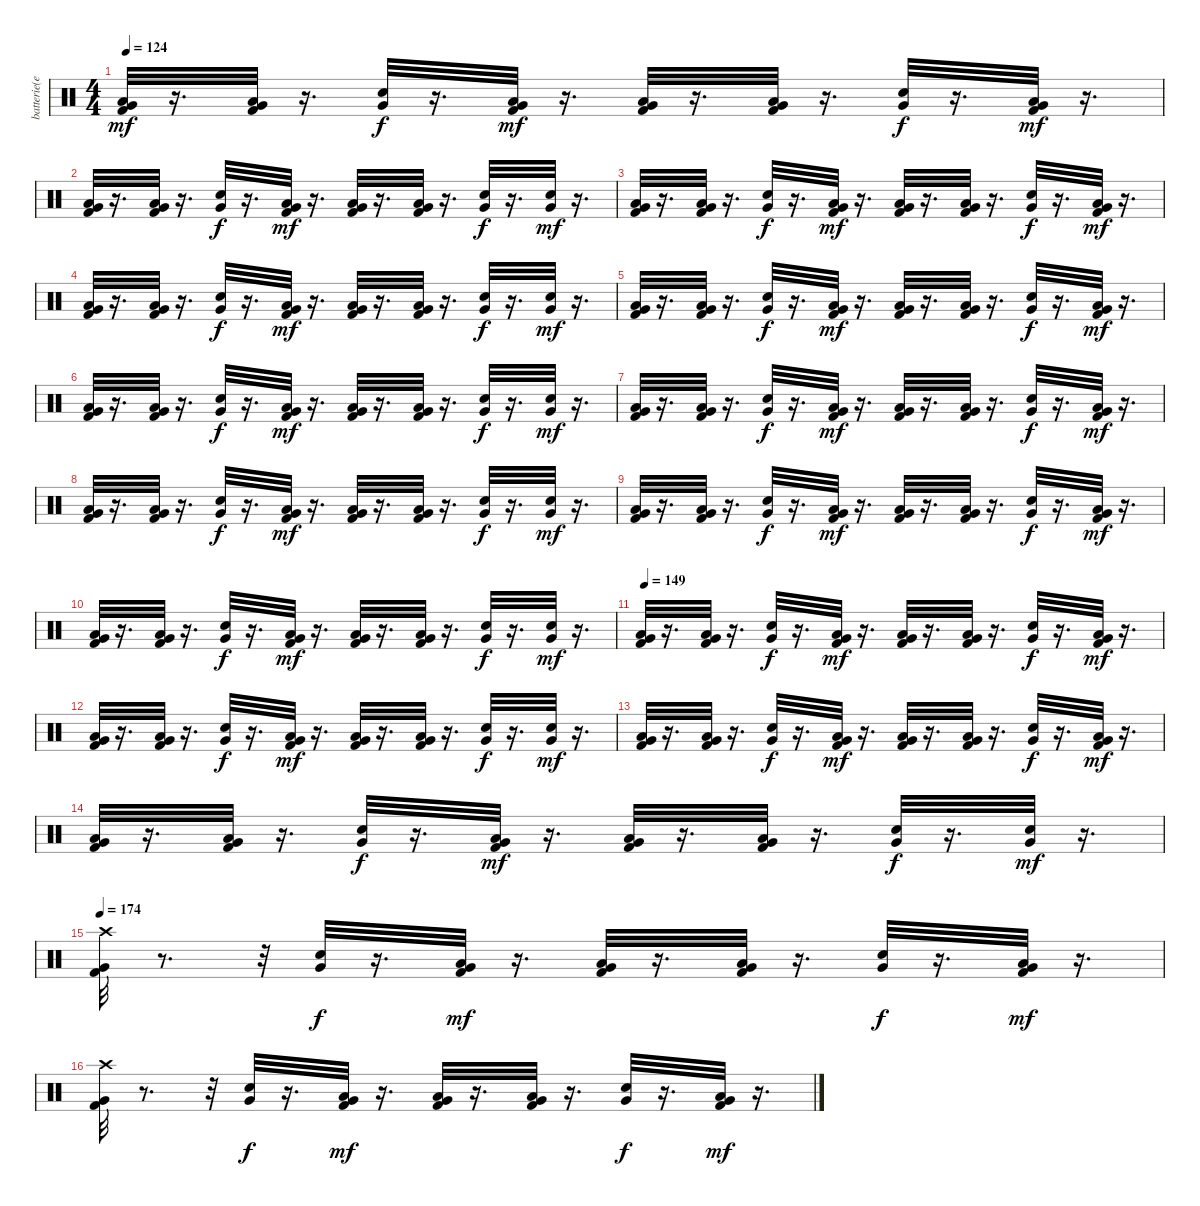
\track ("batterie(eric)" "batterie(e") {instrument percussion}
\staff {score}
\articulation defaults
\ts (4 4)
\tempo 124
\clef neutral
\ks c
("Kick (hit) 2" "Low Floor Tom (hit)" "Very Low Tom (hit)").32{dy mf} r.16{d} ("Kick (hit) 2" "Low Floor Tom (hit)" "Very Low Tom (hit)").32 r.16{d} ("Snare (hit) 2" "Very Low Tom (hit)").32{dy f} r.16{d} ("Kick (hit) 2" "Low Floor Tom (hit)" "Very Low Tom (hit)").32{dy mf} r.16{d} ("Kick (hit) 2" "Low Floor Tom (hit)" "Very Low Tom (hit)").32 r.16{d} ("Kick (hit) 2" "Low Floor Tom (hit)" "Very Low Tom (hit)").32 r.16{d} ("Snare (hit) 2" "Very Low Tom (hit)").32{dy f} r.16{d} ("Kick (hit) 2" "Low Floor Tom (hit)" "Very Low Tom (hit)").32{dy mf} r.16{d} |
("Kick (hit) 2" "Low Floor Tom (hit)" "Very Low Tom (hit)").32 r.16{d} ("Kick (hit) 2" "Low Floor Tom (hit)" "Very Low Tom (hit)").32 r.16{d} ("Snare (hit) 2" "Very Low Tom (hit)").32{dy f} r.16{d} ("Kick (hit) 2" "Low Floor Tom (hit)" "Very Low Tom (hit)").32{dy mf} r.16{d} ("Kick (hit) 2" "Low Floor Tom (hit)" "Very Low Tom (hit)").32 r.16{d} ("Kick (hit) 2" "Low Floor Tom (hit)" "Very Low Tom (hit)").32 r.16{d} ("Snare (hit) 2" "Very Low Tom (hit)").32{dy f} r.16{d} ("Snare (hit) 2" "Very Low Tom (hit)").32{dy mf} r.16{d} |
("Kick (hit) 2" "Low Floor Tom (hit)" "Very Low Tom (hit)").32 r.16{d} ("Kick (hit) 2" "Low Floor Tom (hit)" "Very Low Tom (hit)").32 r.16{d} ("Snare (hit) 2" "Very Low Tom (hit)").32{dy f} r.16{d} ("Kick (hit) 2" "Low Floor Tom (hit)" "Very Low Tom (hit)").32{dy mf} r.16{d} ("Kick (hit) 2" "Low Floor Tom (hit)" "Very Low Tom (hit)").32 r.16{d} ("Kick (hit) 2" "Low Floor Tom (hit)" "Very Low Tom (hit)").32 r.16{d} ("Snare (hit) 2" "Very Low Tom (hit)").32{dy f} r.16{d} ("Kick (hit) 2" "Low Floor Tom (hit)" "Very Low Tom (hit)").32{dy mf} r.16{d} |
("Kick (hit) 2" "Low Floor Tom (hit)" "Very Low Tom (hit)").32 r.16{d} ("Kick (hit) 2" "Low Floor Tom (hit)" "Very Low Tom (hit)").32 r.16{d} ("Snare (hit) 2" "Very Low Tom (hit)").32{dy f} r.16{d} ("Kick (hit) 2" "Low Floor Tom (hit)" "Very Low Tom (hit)").32{dy mf} r.16{d} ("Kick (hit) 2" "Low Floor Tom (hit)" "Very Low Tom (hit)").32 r.16{d} ("Kick (hit) 2" "Low Floor Tom (hit)" "Very Low Tom (hit)").32 r.16{d} ("Snare (hit) 2" "Very Low Tom (hit)").32{dy f} r.16{d} ("Snare (hit) 2" "Very Low Tom (hit)").32{dy mf} r.16{d} |
("Kick (hit) 2" "Low Floor Tom (hit)" "Very Low Tom (hit)").32 r.16{d} ("Kick (hit) 2" "Low Floor Tom (hit)" "Very Low Tom (hit)").32 r.16{d} ("Snare (hit) 2" "Very Low Tom (hit)").32{dy f} r.16{d} ("Kick (hit) 2" "Low Floor Tom (hit)" "Very Low Tom (hit)").32{dy mf} r.16{d} ("Kick (hit) 2" "Low Floor Tom (hit)" "Very Low Tom (hit)").32 r.16{d} ("Kick (hit) 2" "Low Floor Tom (hit)" "Very Low Tom (hit)").32 r.16{d} ("Snare (hit) 2" "Very Low Tom (hit)").32{dy f} r.16{d} ("Kick (hit) 2" "Low Floor Tom (hit)" "Very Low Tom (hit)").32{dy mf} r.16{d} |
("Kick (hit) 2" "Low Floor Tom (hit)" "Very Low Tom (hit)").32 r.16{d} ("Kick (hit) 2" "Low Floor Tom (hit)" "Very Low Tom (hit)").32 r.16{d} ("Snare (hit) 2" "Very Low Tom (hit)").32{dy f} r.16{d} ("Kick (hit) 2" "Low Floor Tom (hit)" "Very Low Tom (hit)").32{dy mf} r.16{d} ("Kick (hit) 2" "Low Floor Tom (hit)" "Very Low Tom (hit)").32 r.16{d} ("Kick (hit) 2" "Low Floor Tom (hit)" "Very Low Tom (hit)").32 r.16{d} ("Snare (hit) 2" "Very Low Tom (hit)").32{dy f} r.16{d} ("Snare (hit) 2" "Very Low Tom (hit)").32{dy mf} r.16{d} |
("Kick (hit) 2" "Low Floor Tom (hit)" "Very Low Tom (hit)").32 r.16{d} ("Kick (hit) 2" "Low Floor Tom (hit)" "Very Low Tom (hit)").32 r.16{d} ("Snare (hit) 2" "Very Low Tom (hit)").32{dy f} r.16{d} ("Kick (hit) 2" "Low Floor Tom (hit)" "Very Low Tom (hit)").32{dy mf} r.16{d} ("Kick (hit) 2" "Low Floor Tom (hit)" "Very Low Tom (hit)").32 r.16{d} ("Kick (hit) 2" "Low Floor Tom (hit)" "Very Low Tom (hit)").32 r.16{d} ("Snare (hit) 2" "Very Low Tom (hit)").32{dy f} r.16{d} ("Kick (hit) 2" "Low Floor Tom (hit)" "Very Low Tom (hit)").32{dy mf} r.16{d} |
("Kick (hit) 2" "Low Floor Tom (hit)" "Very Low Tom (hit)").32 r.16{d} ("Kick (hit) 2" "Low Floor Tom (hit)" "Very Low Tom (hit)").32 r.16{d} ("Snare (hit) 2" "Very Low Tom (hit)").32{dy f} r.16{d} ("Kick (hit) 2" "Low Floor Tom (hit)" "Very Low Tom (hit)").32{dy mf} r.16{d} ("Kick (hit) 2" "Low Floor Tom (hit)" "Very Low Tom (hit)").32 r.16{d} ("Kick (hit) 2" "Low Floor Tom (hit)" "Very Low Tom (hit)").32 r.16{d} ("Snare (hit) 2" "Very Low Tom (hit)").32{dy f} r.16{d} ("Snare (hit) 2" "Very Low Tom (hit)").32{dy mf} r.16{d} |
("Kick (hit) 2" "Low Floor Tom (hit)" "Very Low Tom (hit)").32 r.16{d} ("Kick (hit) 2" "Low Floor Tom (hit)" "Very Low Tom (hit)").32 r.16{d} ("Snare (hit) 2" "Very Low Tom (hit)").32{dy f} r.16{d} ("Kick (hit) 2" "Low Floor Tom (hit)" "Very Low Tom (hit)").32{dy mf} r.16{d} ("Kick (hit) 2" "Low Floor Tom (hit)" "Very Low Tom (hit)").32 r.16{d} ("Kick (hit) 2" "Low Floor Tom (hit)" "Very Low Tom (hit)").32 r.16{d} ("Snare (hit) 2" "Very Low Tom (hit)").32{dy f} r.16{d} ("Kick (hit) 2" "Low Floor Tom (hit)" "Very Low Tom (hit)").32{dy mf} r.16{d} |
("Kick (hit) 2" "Low Floor Tom (hit)" "Very Low Tom (hit)").32 r.16{d} ("Kick (hit) 2" "Low Floor Tom (hit)" "Very Low Tom (hit)").32 r.16{d} ("Snare (hit) 2" "Very Low Tom (hit)").32{dy f} r.16{d} ("Kick (hit) 2" "Low Floor Tom (hit)" "Very Low Tom (hit)").32{dy mf} r.16{d} ("Kick (hit) 2" "Low Floor Tom (hit)" "Very Low Tom (hit)").32 r.16{d} ("Kick (hit) 2" "Low Floor Tom (hit)" "Very Low Tom (hit)").32 r.16{d} ("Snare (hit) 2" "Very Low Tom (hit)").32{dy f} r.16{d} ("Snare (hit) 2" "Very Low Tom (hit)").32{dy mf} r.16{d} |
\tempo 149
("Kick (hit) 2" "Low Floor Tom (hit)" "Very Low Tom (hit)").32 r.16{d} ("Kick (hit) 2" "Low Floor Tom (hit)" "Very Low Tom (hit)").32 r.16{d} ("Snare (hit) 2" "Very Low Tom (hit)").32{dy f} r.16{d} ("Kick (hit) 2" "Low Floor Tom (hit)" "Very Low Tom (hit)").32{dy mf} r.16{d} ("Kick (hit) 2" "Low Floor Tom (hit)" "Very Low Tom (hit)").32 r.16{d} ("Kick (hit) 2" "Low Floor Tom (hit)" "Very Low Tom (hit)").32 r.16{d} ("Snare (hit) 2" "Very Low Tom (hit)").32{dy f} r.16{d} ("Kick (hit) 2" "Low Floor Tom (hit)" "Very Low Tom (hit)").32{dy mf} r.16{d} |
("Kick (hit) 2" "Low Floor Tom (hit)" "Very Low Tom (hit)").32 r.16{d} ("Kick (hit) 2" "Low Floor Tom (hit)" "Very Low Tom (hit)").32 r.16{d} ("Snare (hit) 2" "Very Low Tom (hit)").32{dy f} r.16{d} ("Kick (hit) 2" "Low Floor Tom (hit)" "Very Low Tom (hit)").32{dy mf} r.16{d} ("Kick (hit) 2" "Low Floor Tom (hit)" "Very Low Tom (hit)").32 r.16{d} ("Kick (hit) 2" "Low Floor Tom (hit)" "Very Low Tom (hit)").32 r.16{d} ("Snare (hit) 2" "Very Low Tom (hit)").32{dy f} r.16{d} ("Snare (hit) 2" "Very Low Tom (hit)").32{dy mf} r.16{d} |
("Kick (hit) 2" "Low Floor Tom (hit)" "Very Low Tom (hit)").32 r.16{d} ("Kick (hit) 2" "Low Floor Tom (hit)" "Very Low Tom (hit)").32 r.16{d} ("Snare (hit) 2" "Very Low Tom (hit)").32{dy f} r.16{d} ("Kick (hit) 2" "Low Floor Tom (hit)" "Very Low Tom (hit)").32{dy mf} r.16{d} ("Kick (hit) 2" "Low Floor Tom (hit)" "Very Low Tom (hit)").32 r.16{d} ("Kick (hit) 2" "Low Floor Tom (hit)" "Very Low Tom (hit)").32 r.16{d} ("Snare (hit) 2" "Very Low Tom (hit)").32{dy f} r.16{d} ("Kick (hit) 2" "Low Floor Tom (hit)" "Very Low Tom (hit)").32{dy mf} r.16{d} |
("Kick (hit) 2" "Low Floor Tom (hit)" "Very Low Tom (hit)").32 r.16{d} ("Kick (hit) 2" "Low Floor Tom (hit)" "Very Low Tom (hit)").32 r.16{d} ("Snare (hit) 2" "Very Low Tom (hit)").32{dy f} r.16{d} ("Kick (hit) 2" "Low Floor Tom (hit)" "Very Low Tom (hit)").32{dy mf} r.16{d} ("Kick (hit) 2" "Low Floor Tom (hit)" "Very Low Tom (hit)").32 r.16{d} ("Kick (hit) 2" "Low Floor Tom (hit)" "Very Low Tom (hit)").32 r.16{d} ("Snare (hit) 2" "Very Low Tom (hit)").32{dy f} r.16{d} ("Snare (hit) 2" "Very Low Tom (hit)").32{dy mf} r.16{d} |
\tempo 174
("Kick (hit) 2" "Very Low Tom (hit)" "Crash high (hit)").32 r.8{d} r.32 ("Snare (hit) 2" "Very Low Tom (hit)").32{dy f} r.16{d} ("Kick (hit) 2" "Low Floor Tom (hit)" "Very Low Tom (hit)").32{dy mf} r.16{d} ("Kick (hit) 2" "Low Floor Tom (hit)" "Very Low Tom (hit)").32 r.16{d} ("Kick (hit) 2" "Low Floor Tom (hit)" "Very Low Tom (hit)").32 r.16{d} ("Snare (hit) 2" "Very Low Tom (hit)").32{dy f} r.16{d} ("Kick (hit) 2" "Low Floor Tom (hit)" "Very Low Tom (hit)").32{dy mf} r.16{d} |
("Kick (hit) 2" "Very Low Tom (hit)" "Crash high (hit)").32 r.8{d} r.32 ("Snare (hit) 2" "Very Low Tom (hit)").32{dy f} r.16{d} ("Kick (hit) 2" "Low Floor Tom (hit)" "Very Low Tom (hit)").32{dy mf} r.16{d} ("Kick (hit) 2" "Low Floor Tom (hit)" "Very Low Tom (hit)").32 r.16{d} ("Kick (hit) 2" "Low Floor Tom (hit)" "Very Low Tom (hit)").32 r.16{d} ("Snare (hit) 2" "Very Low Tom (hit)").32{dy f} r.16{d} ("Kick (hit) 2" "Low Floor Tom (hit)" "Very Low Tom (hit)").32{dy mf} r.16{d}
